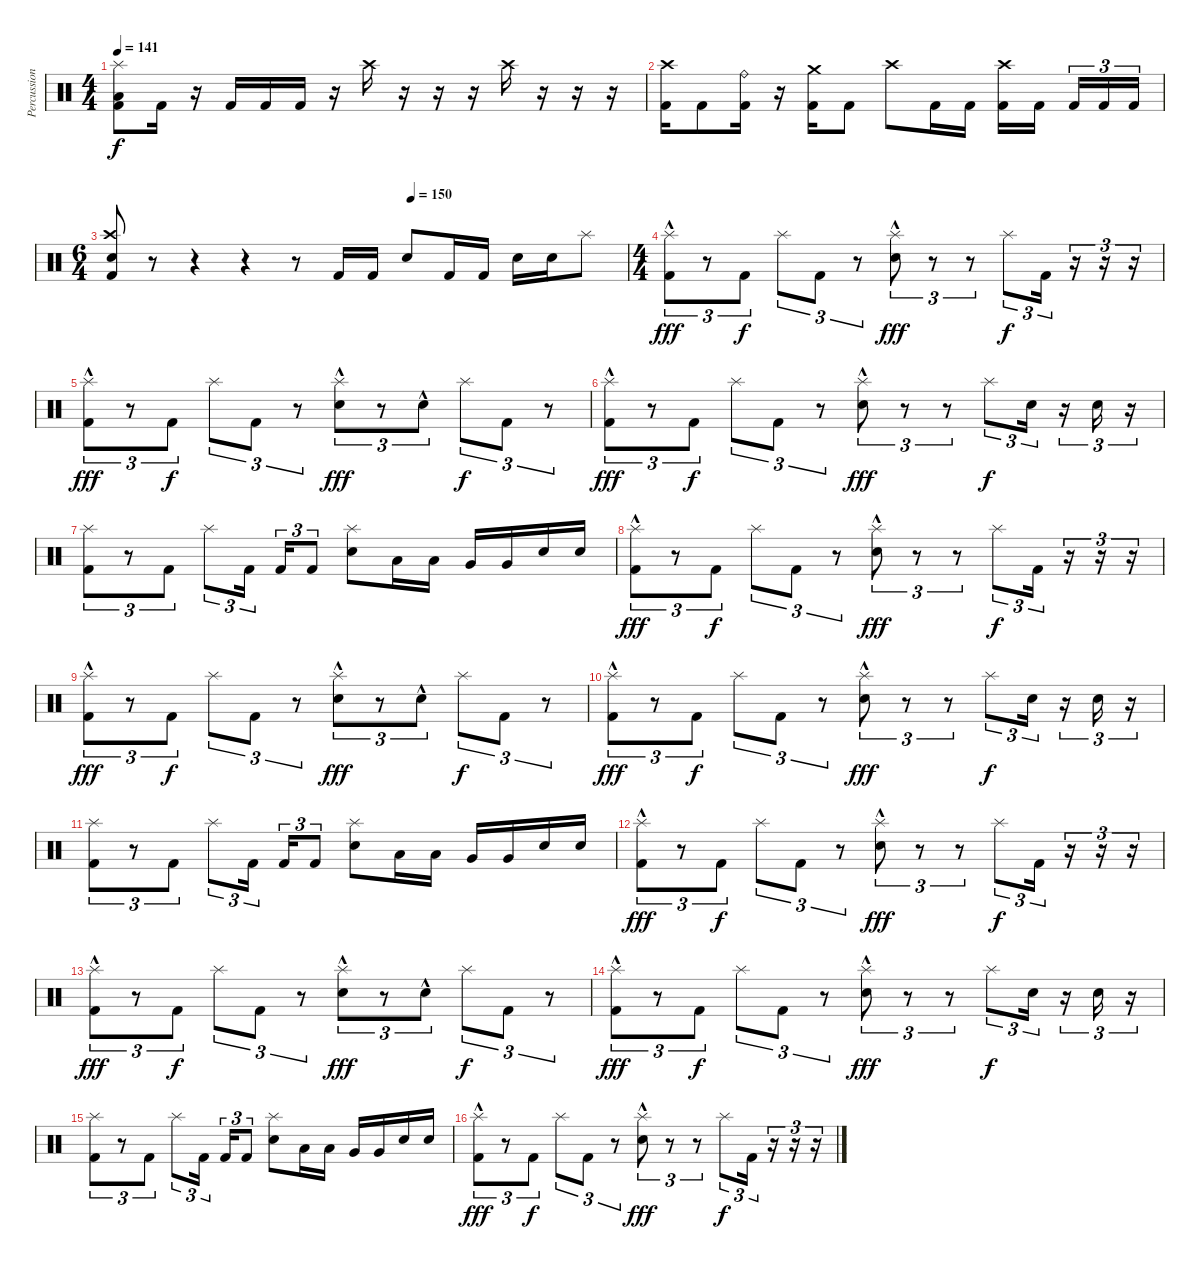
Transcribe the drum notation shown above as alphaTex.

\track ("Percussion" "Percussion") {instrument percussion}
\staff {score}
\articulation defaults
\ts (4 4)
\tempo 141
\clef neutral
\ks c
("Splash (hit)" "Low Floor Tom (hit)" "Kick (hit) 2").8{dy f} "Kick (hit) 2".16 r.16 "Kick (hit) 2".16 "Kick (hit) 2".16 "Kick (hit) 2".16 r.16 "Crash high (hit)".16 r.16 r.16 r.16 "Crash high (hit)".16 r.16 r.16 r.16 |
("Crash high (hit)" "Kick (hit) 2").16 "Kick (hit) 2".8 ("Ride (bell)" "Kick (hit) 2").16 r.16 ("Crash medium (hit)" "Kick (hit) 2").16 "Kick (hit) 2".8 "Crash high (hit)".8 "Kick (hit) 2".16 "Kick (hit) 2".16 ("Crash high (hit)" "Kick (hit) 2").16 "Kick (hit) 2".16{beam splitsecondary} "Kick (hit) 2".16{tu (3 2)} "Kick (hit) 2".16{tu (3 2)} "Kick (hit) 2".16{tu (3 2)} |
\ts (6 4)
\tempo (150 0.5833333333333334)
("Crash high (hit)" "Electric Snare (hit)" "Kick (hit) 2").8 r.8 r.4 r.4 r.8 "Kick (hit) 2".16 "Kick (hit) 2".16 "Electric Snare (hit)".8 "Kick (hit) 2".16 "Kick (hit) 2".16 "Electric Snare (hit)".16 "Electric Snare (hit)".16 "Splash (hit)".8 |
\ts (4 4)
("Splash (hit)" "Kick (hit) 2"{hac}).8{tu (3 2) dy fff} r.8{tu (3 2)} "Kick (hit) 2".8{tu (3 2) dy f} "Splash (hit)".8{tu (3 2)} "Kick (hit) 2".8{tu (3 2)} r.8{tu (3 2)} ("Splash (hit)" "Electric Snare (hit)"{hac}).8{tu (3 2) dy fff} r.8{tu (3 2)} r.8{tu (3 2)} "Splash (hit)".8{tu (3 2) dy f} "Kick (hit) 2".16{tu (3 2)} r.16{tu (3 2)} r.16{tu (3 2)} r.16{tu (3 2)} |
("Splash (hit)" "Kick (hit) 2"{hac}).8{tu (3 2) dy fff} r.8{tu (3 2)} "Kick (hit) 2".8{tu (3 2) dy f} "Splash (hit)".8{tu (3 2)} "Kick (hit) 2".8{tu (3 2)} r.8{tu (3 2)} ("Splash (hit)" "Electric Snare (hit)"{hac}).8{tu (3 2) dy fff} r.8{tu (3 2)} "Electric Snare (hit)"{hac}.8{tu (3 2)} "Splash (hit)".8{tu (3 2) dy f} "Kick (hit) 2".8{tu (3 2)} r.8{tu (3 2)} |
("Splash (hit)" "Kick (hit) 2"{hac}).8{tu (3 2) dy fff} r.8{tu (3 2)} "Kick (hit) 2".8{tu (3 2) dy f} "Splash (hit)".8{tu (3 2)} "Kick (hit) 2".8{tu (3 2)} r.8{tu (3 2)} ("Splash (hit)" "Electric Snare (hit)"{hac}).8{tu (3 2) dy fff} r.8{tu (3 2)} r.8{tu (3 2)} "Splash (hit)".8{tu (3 2) dy f} "Electric Snare (hit)".16{tu (3 2)} r.16{tu (3 2)} "Electric Snare (hit)".16{tu (3 2)} r.16{tu (3 2)} |
("Splash (hit)" "Kick (hit) 2").8{tu (3 2)} r.8{tu (3 2)} "Kick (hit) 2".8{tu (3 2)} "Splash (hit)".8{tu (3 2)} "Kick (hit) 2".16{tu (3 2) beam splitsecondary} "Kick (hit) 2".16{tu (3 2)} "Kick (hit) 2".8{tu (3 2)} ("Splash (hit)" "Electric Snare (hit)").8 "Low Tom (hit)".16 "Low Tom (hit)".16 "Very Low Tom (hit)".16 "Very Low Tom (hit)".16 "Electric Snare (hit)".16 "Electric Snare (hit)".16 |
("Splash (hit)" "Kick (hit) 2"{hac}).8{tu (3 2) dy fff} r.8{tu (3 2)} "Kick (hit) 2".8{tu (3 2) dy f} "Splash (hit)".8{tu (3 2)} "Kick (hit) 2".8{tu (3 2)} r.8{tu (3 2)} ("Splash (hit)" "Electric Snare (hit)"{hac}).8{tu (3 2) dy fff} r.8{tu (3 2)} r.8{tu (3 2)} "Splash (hit)".8{tu (3 2) dy f} "Kick (hit) 2".16{tu (3 2)} r.16{tu (3 2)} r.16{tu (3 2)} r.16{tu (3 2)} |
("Splash (hit)" "Kick (hit) 2"{hac}).8{tu (3 2) dy fff} r.8{tu (3 2)} "Kick (hit) 2".8{tu (3 2) dy f} "Splash (hit)".8{tu (3 2)} "Kick (hit) 2".8{tu (3 2)} r.8{tu (3 2)} ("Splash (hit)" "Electric Snare (hit)"{hac}).8{tu (3 2) dy fff} r.8{tu (3 2)} "Electric Snare (hit)"{hac}.8{tu (3 2)} "Splash (hit)".8{tu (3 2) dy f} "Kick (hit) 2".8{tu (3 2)} r.8{tu (3 2)} |
("Splash (hit)" "Kick (hit) 2"{hac}).8{tu (3 2) dy fff} r.8{tu (3 2)} "Kick (hit) 2".8{tu (3 2) dy f} "Splash (hit)".8{tu (3 2)} "Kick (hit) 2".8{tu (3 2)} r.8{tu (3 2)} ("Splash (hit)" "Electric Snare (hit)"{hac}).8{tu (3 2) dy fff} r.8{tu (3 2)} r.8{tu (3 2)} "Splash (hit)".8{tu (3 2) dy f} "Electric Snare (hit)".16{tu (3 2)} r.16{tu (3 2)} "Electric Snare (hit)".16{tu (3 2)} r.16{tu (3 2)} |
("Splash (hit)" "Kick (hit) 2").8{tu (3 2)} r.8{tu (3 2)} "Kick (hit) 2".8{tu (3 2)} "Splash (hit)".8{tu (3 2)} "Kick (hit) 2".16{tu (3 2) beam splitsecondary} "Kick (hit) 2".16{tu (3 2)} "Kick (hit) 2".8{tu (3 2)} ("Splash (hit)" "Electric Snare (hit)").8 "Low Tom (hit)".16 "Low Tom (hit)".16 "Very Low Tom (hit)".16 "Very Low Tom (hit)".16 "Electric Snare (hit)".16 "Electric Snare (hit)".16 |
("Splash (hit)" "Kick (hit) 2"{hac}).8{tu (3 2) dy fff} r.8{tu (3 2)} "Kick (hit) 2".8{tu (3 2) dy f} "Splash (hit)".8{tu (3 2)} "Kick (hit) 2".8{tu (3 2)} r.8{tu (3 2)} ("Splash (hit)" "Electric Snare (hit)"{hac}).8{tu (3 2) dy fff} r.8{tu (3 2)} r.8{tu (3 2)} "Splash (hit)".8{tu (3 2) dy f} "Kick (hit) 2".16{tu (3 2)} r.16{tu (3 2)} r.16{tu (3 2)} r.16{tu (3 2)} |
("Splash (hit)" "Kick (hit) 2"{hac}).8{tu (3 2) dy fff} r.8{tu (3 2)} "Kick (hit) 2".8{tu (3 2) dy f} "Splash (hit)".8{tu (3 2)} "Kick (hit) 2".8{tu (3 2)} r.8{tu (3 2)} ("Splash (hit)" "Electric Snare (hit)"{hac}).8{tu (3 2) dy fff} r.8{tu (3 2)} "Electric Snare (hit)"{hac}.8{tu (3 2)} "Splash (hit)".8{tu (3 2) dy f} "Kick (hit) 2".8{tu (3 2)} r.8{tu (3 2)} |
("Splash (hit)" "Kick (hit) 2"{hac}).8{tu (3 2) dy fff} r.8{tu (3 2)} "Kick (hit) 2".8{tu (3 2) dy f} "Splash (hit)".8{tu (3 2)} "Kick (hit) 2".8{tu (3 2)} r.8{tu (3 2)} ("Splash (hit)" "Electric Snare (hit)"{hac}).8{tu (3 2) dy fff} r.8{tu (3 2)} r.8{tu (3 2)} "Splash (hit)".8{tu (3 2) dy f} "Electric Snare (hit)".16{tu (3 2)} r.16{tu (3 2)} "Electric Snare (hit)".16{tu (3 2)} r.16{tu (3 2)} |
("Splash (hit)" "Kick (hit) 2").8{tu (3 2)} r.8{tu (3 2)} "Kick (hit) 2".8{tu (3 2)} "Splash (hit)".8{tu (3 2)} "Kick (hit) 2".16{tu (3 2) beam splitsecondary} "Kick (hit) 2".16{tu (3 2)} "Kick (hit) 2".8{tu (3 2)} ("Splash (hit)" "Electric Snare (hit)").8 "Low Tom (hit)".16 "Low Tom (hit)".16 "Very Low Tom (hit)".16 "Very Low Tom (hit)".16 "Electric Snare (hit)".16 "Electric Snare (hit)".16 |
("Splash (hit)" "Kick (hit) 2"{hac}).8{tu (3 2) dy fff} r.8{tu (3 2)} "Kick (hit) 2".8{tu (3 2) dy f} "Splash (hit)".8{tu (3 2)} "Kick (hit) 2".8{tu (3 2)} r.8{tu (3 2)} ("Splash (hit)" "Electric Snare (hit)"{hac}).8{tu (3 2) dy fff} r.8{tu (3 2)} r.8{tu (3 2)} "Splash (hit)".8{tu (3 2) dy f} "Kick (hit) 2".16{tu (3 2)} r.16{tu (3 2)} r.16{tu (3 2)} r.16{tu (3 2)}
